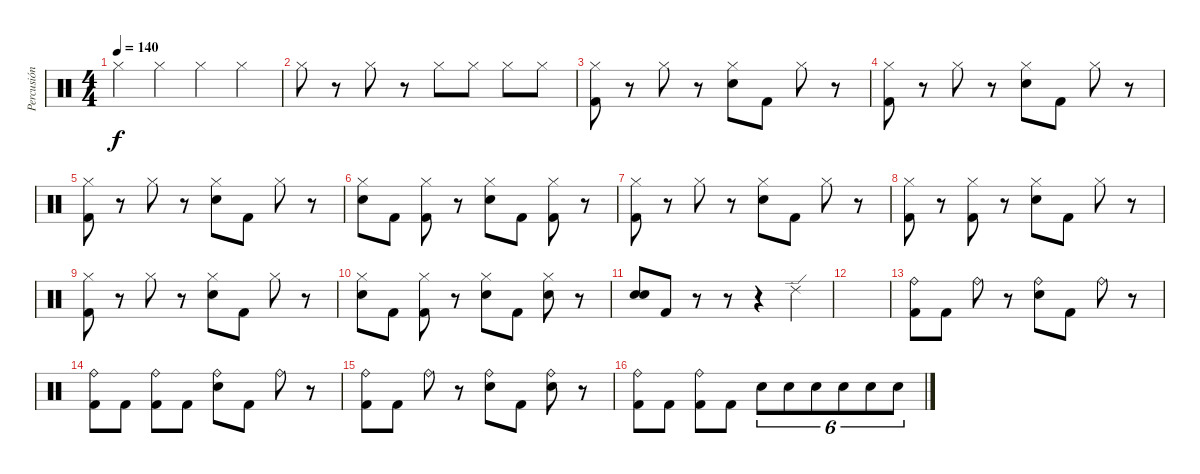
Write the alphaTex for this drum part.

\track ("Percusión" "Percusión") {instrument percussion}
\staff {score}
\articulation defaults
\ts (4 4)
\tempo 140
\clef neutral
\ks c "Hi-Hat (closed)".4{dy f} "Hi-Hat (closed)".4 "Hi-Hat (closed)".4 "Hi-Hat (closed)".4
|
"Hi-Hat (closed)".8 r.8 "Hi-Hat (closed)".8 r.8 "Hi-Hat (closed)".8 "Hi-Hat (closed)".8 "Hi-Hat (closed)".8 "Hi-Hat (closed)".8 |
("Hi-Hat (closed)" "Kick (hit) 2").8 r.8 "Hi-Hat (closed)".8 r.8 ("Hi-Hat (closed)" "Snare (hit) 2").8 "Kick (hit) 2".8 "Hi-Hat (closed)".8 r.8 |
("Hi-Hat (closed)" "Kick (hit) 2").8 r.8 "Hi-Hat (closed)".8 r.8 ("Hi-Hat (closed)" "Snare (hit) 2").8 "Kick (hit) 2".8 "Hi-Hat (closed)".8 r.8 |
("Hi-Hat (closed)" "Kick (hit) 2").8 r.8 "Hi-Hat (closed)".8 r.8 ("Hi-Hat (closed)" "Snare (hit) 2").8 "Kick (hit) 2".8 "Hi-Hat (closed)".8 r.8 |
("Hi-Hat (closed)" "Snare (hit) 2").8 "Kick (hit) 2".8 ("Hi-Hat (closed)" "Kick (hit) 2").8 r.8 ("Hi-Hat (closed)" "Snare (hit) 2").8 "Kick (hit) 2".8 ("Hi-Hat (closed)" "Kick (hit) 2").8 r.8 |
("Hi-Hat (closed)" "Kick (hit) 2").8 r.8 "Hi-Hat (closed)".8 r.8 ("Hi-Hat (closed)" "Snare (hit) 2").8 "Kick (hit) 2".8 "Hi-Hat (closed)".8 r.8 |
("Hi-Hat (closed)" "Kick (hit) 2").8 r.8 ("Hi-Hat (closed)" "Kick (hit) 2").8 r.8 ("Hi-Hat (closed)" "Snare (hit) 2").8 "Kick (hit) 2".8 "Hi-Hat (closed)".8 r.8 |
("Hi-Hat (closed)" "Kick (hit) 2").8 r.8 "Hi-Hat (closed)".8 r.8 ("Hi-Hat (closed)" "Snare (hit) 2").8 "Kick (hit) 2".8 "Hi-Hat (closed)".8 r.8 |
("Hi-Hat (closed)" "Snare (hit) 2").8 "Kick (hit) 2".8 ("Hi-Hat (closed)" "Kick (hit) 2").8 r.8 ("Hi-Hat (closed)" "Snare (hit) 2").8 "Kick (hit) 2".8 ("Hi-Hat (closed)" "Snare (hit) 2").8 r.8 |
("Snare (hit) 2" "Snare (hit) 2").8 "Kick (hit) 2".8 r.8 r.8 r.4 "Ride (edge) 2".4 |
|
("Ride (bell)" "Kick (hit) 2").8 "Kick (hit) 2".8 "Ride (bell)".8 r.8 ("Ride (bell)" "Snare (hit) 2").8 "Kick (hit) 2".8 "Ride (bell)".8 r.8 |
("Ride (bell)" "Kick (hit) 2").8 "Kick (hit) 2".8 ("Ride (bell)" "Kick (hit) 2").8 "Kick (hit) 2".8 ("Ride (bell)" "Snare (hit) 2").8 "Kick (hit) 2".8 "Ride (bell)".8 r.8 |
("Ride (bell)" "Kick (hit) 2").8 "Kick (hit) 2".8 "Ride (bell)".8 r.8 ("Ride (bell)" "Snare (hit) 2").8 "Kick (hit) 2".8 ("Ride (bell)" "Snare (hit) 2").8 r.8 |
("Ride (bell)" "Kick (hit) 2").8 "Kick (hit) 2".8 ("Ride (bell)" "Kick (hit) 2").8 "Kick (hit) 2".8 "Snare (hit) 2".8{tu (6 4)} "Snare (hit) 2".8{tu (6 4)} "Snare (hit) 2".8{tu (6 4)} "Snare (hit) 2".8{tu (6 4)} "Snare (hit) 2".8{tu (6 4)} "Snare (hit) 2".8{tu (6 4)}
